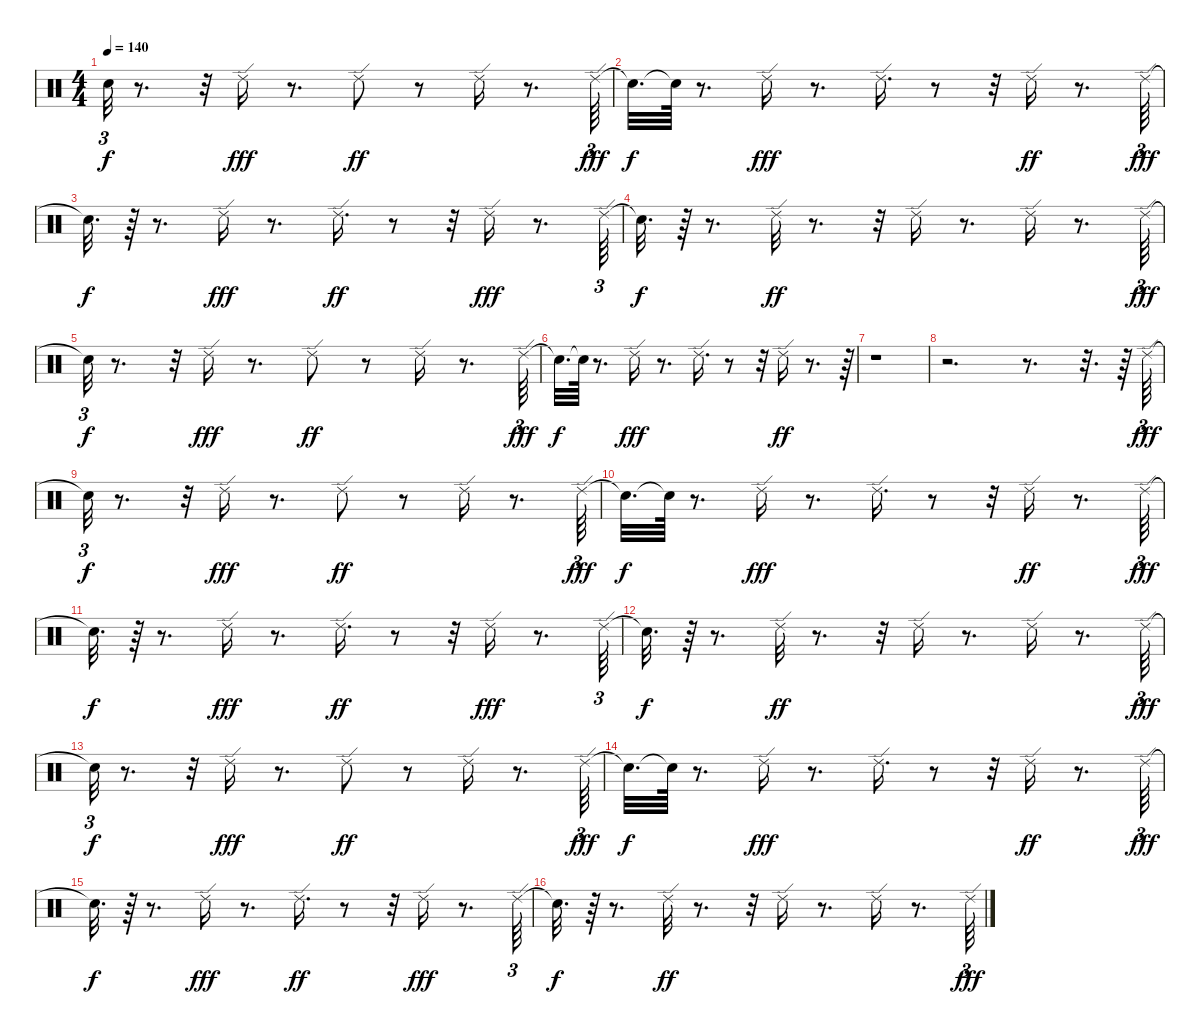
\track "" {instrument percussion}
\staff {score}
\articulation defaults
\ts (4 4)
\tempo 140
\clef neutral
\ks c "Snare (hit)"{t}.32{tu (3 2) dy f}
r.8{d} r.32 "Ride (edge) 2".16{dy fff} r.8{d} "Ride (edge) 2".8{dy ff} r.8 "Ride (edge) 2".16 r.8{d} "Ride (edge) 2".64{tu (3 2) dy fff} |
"Snare (hit)"{t}.32{d dy f} "Snare (hit)"{t}.64 r.8{d} "Ride (edge) 2".16{dy fff} r.8{d} "Ride (edge) 2".16{d} r.8 r.32 "Ride (edge) 2".16{dy ff} r.8{d} "Ride (edge) 2".64{tu (3 2) dy fff} |
"Snare (hit)"{t}.32{d dy f} r.64 r.8{d} "Ride (edge) 2".16{dy fff} r.8{d} "Ride (edge) 2".16{d dy ff} r.8 r.32 "Ride (edge) 2".16{dy fff} r.8{d} "Ride (edge) 2".64{tu (3 2)} |
"Snare (hit)"{t}.32{d dy f} r.64 r.8{d} "Ride (edge) 2".32{dy ff} r.8{d} r.32 "Ride (edge) 2".16 r.8{d} "Ride (edge) 2".16 r.8{d} "Ride (edge) 2".64{tu (3 2) dy fff} |
"Snare (hit)"{t}.32{tu (3 2) dy f} r.8{d} r.32 "Ride (edge) 2".16{dy fff} r.8{d} "Ride (edge) 2".8{dy ff} r.8 "Ride (edge) 2".16 r.8{d} "Ride (edge) 2".64{tu (3 2) dy fff} |
"Snare (hit)"{t}.32{d dy f} "Snare (hit)"{t}.64 r.8{d} "Ride (edge) 2".16{dy fff} r.8{d} "Ride (edge) 2".16{d} r.8 r.32 "Ride (edge) 2".16{dy ff} r.8{d} r.64{tu (3 2)} |
r.1 |
r.2{d} r.8{d} r.32{d} r.64 "Ride (edge) 2".64{tu (3 2) dy fff} |
"Snare (hit)"{t}.32{tu (3 2) dy f} r.8{d} r.32 "Ride (edge) 2".16{dy fff} r.8{d} "Ride (edge) 2".8{dy ff} r.8 "Ride (edge) 2".16 r.8{d} "Ride (edge) 2".64{tu (3 2) dy fff} |
"Snare (hit)"{t}.32{d dy f} "Snare (hit)"{t}.64 r.8{d} "Ride (edge) 2".16{dy fff} r.8{d} "Ride (edge) 2".16{d} r.8 r.32 "Ride (edge) 2".16{dy ff} r.8{d} "Ride (edge) 2".64{tu (3 2) dy fff} |
"Snare (hit)"{t}.32{d dy f} r.64 r.8{d} "Ride (edge) 2".16{dy fff} r.8{d} "Ride (edge) 2".16{d dy ff} r.8 r.32 "Ride (edge) 2".16{dy fff} r.8{d} "Ride (edge) 2".64{tu (3 2)} |
"Snare (hit)"{t}.32{d dy f} r.64 r.8{d} "Ride (edge) 2".32{dy ff} r.8{d} r.32 "Ride (edge) 2".16 r.8{d} "Ride (edge) 2".16 r.8{d} "Ride (edge) 2".64{tu (3 2) dy fff} |
"Snare (hit)"{t}.32{tu (3 2) dy f} r.8{d} r.32 "Ride (edge) 2".16{dy fff} r.8{d} "Ride (edge) 2".8{dy ff} r.8 "Ride (edge) 2".16 r.8{d} "Ride (edge) 2".64{tu (3 2) dy fff} |
"Snare (hit)"{t}.32{d dy f} "Snare (hit)"{t}.64 r.8{d} "Ride (edge) 2".16{dy fff} r.8{d} "Ride (edge) 2".16{d} r.8 r.32 "Ride (edge) 2".16{dy ff} r.8{d} "Ride (edge) 2".64{tu (3 2) dy fff} |
"Snare (hit)"{t}.32{d dy f} r.64 r.8{d} "Ride (edge) 2".16{dy fff} r.8{d} "Ride (edge) 2".16{d dy ff} r.8 r.32 "Ride (edge) 2".16{dy fff} r.8{d} "Ride (edge) 2".64{tu (3 2)} |
"Snare (hit)"{t}.32{d dy f} r.64 r.8{d} "Ride (edge) 2".32{dy ff} r.8{d} r.32 "Ride (edge) 2".16 r.8{d} "Ride (edge) 2".16 r.8{d} "Ride (edge) 2".64{tu (3 2) dy fff}
